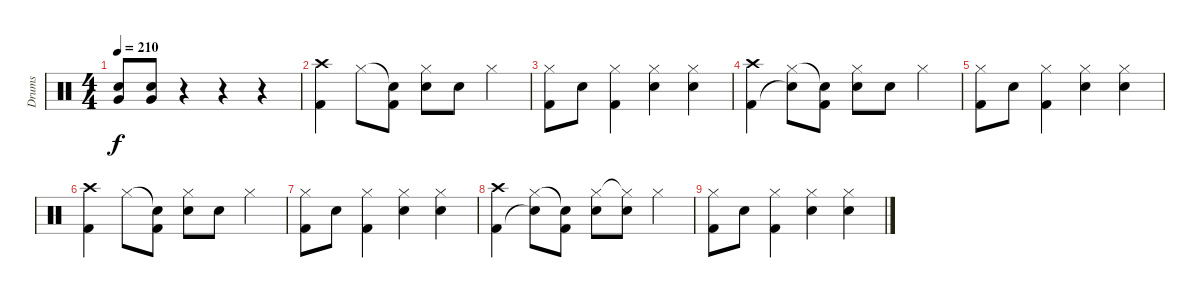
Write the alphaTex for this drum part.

\track ("Drums" "Drums") {instrument percussion}
\staff {score}
\articulation defaults
\ts (4 4)
\tempo 210
\clef neutral
\ks c
("Snare (hit) 2" "Very Low Tom (hit)").8{dy f} ("Snare (hit) 2" "Very Low Tom (hit)").8 r.4 r.4 r.4 |
("Crash high (hit)" "Kick (hit) 2").4 "Hi-Hat (closed)".8 ("Snare (hit)"{t} "Kick (hit) 2").8 ("Hi-Hat (closed)" "Snare (hit) 2").8 "Snare (hit) 2".8 "Hi-Hat (closed)".4 |
("Hi-Hat (closed)" "Kick (hit) 2").8 "Snare (hit) 2".8 ("Hi-Hat (closed)" "Kick (hit) 2").4 ("Hi-Hat (closed)" "Snare (hit) 2").4 ("Hi-Hat (closed)" "Snare (hit) 2").4 |
("Crash high (hit)" "Kick (hit) 2").4 ("Hi-Hat (closed)" "Snare (hit)"{t}).8 ("Snare (hit)"{t} "Kick (hit) 2").8 ("Hi-Hat (closed)" "Snare (hit) 2").8 "Snare (hit) 2".8 "Hi-Hat (closed)".4 |
("Hi-Hat (closed)" "Kick (hit) 2").8 "Snare (hit) 2".8 ("Hi-Hat (closed)" "Kick (hit) 2").4 ("Hi-Hat (closed)" "Snare (hit) 2").4 ("Hi-Hat (closed)" "Snare (hit) 2").4 |
("Crash high (hit)" "Kick (hit) 2").4 "Hi-Hat (closed)".8 ("Snare (hit)"{t} "Kick (hit) 2").8 ("Hi-Hat (closed)" "Snare (hit) 2").8 "Snare (hit) 2".8 "Hi-Hat (closed)".4 |
("Hi-Hat (closed)" "Kick (hit) 2").8 "Snare (hit) 2".8 ("Hi-Hat (closed)" "Kick (hit) 2").4 ("Hi-Hat (closed)" "Snare (hit) 2").4 ("Hi-Hat (closed)" "Snare (hit) 2").4 |
("Crash high (hit)" "Kick (hit) 2").4 ("Hi-Hat (closed)" "Snare (hit)"{t}).8 ("Snare (hit)"{t} "Kick (hit) 2").8 ("Hi-Hat (closed)" "Snare (hit) 2").8 ("Hi-Hat (closed)"{t} "Snare (hit) 2").8 "Hi-Hat (closed)".4 |
("Hi-Hat (closed)" "Kick (hit) 2").8 "Snare (hit) 2".8 ("Hi-Hat (closed)" "Kick (hit) 2").4 ("Hi-Hat (closed)" "Snare (hit) 2").4 ("Hi-Hat (closed)" "Snare (hit) 2").4
